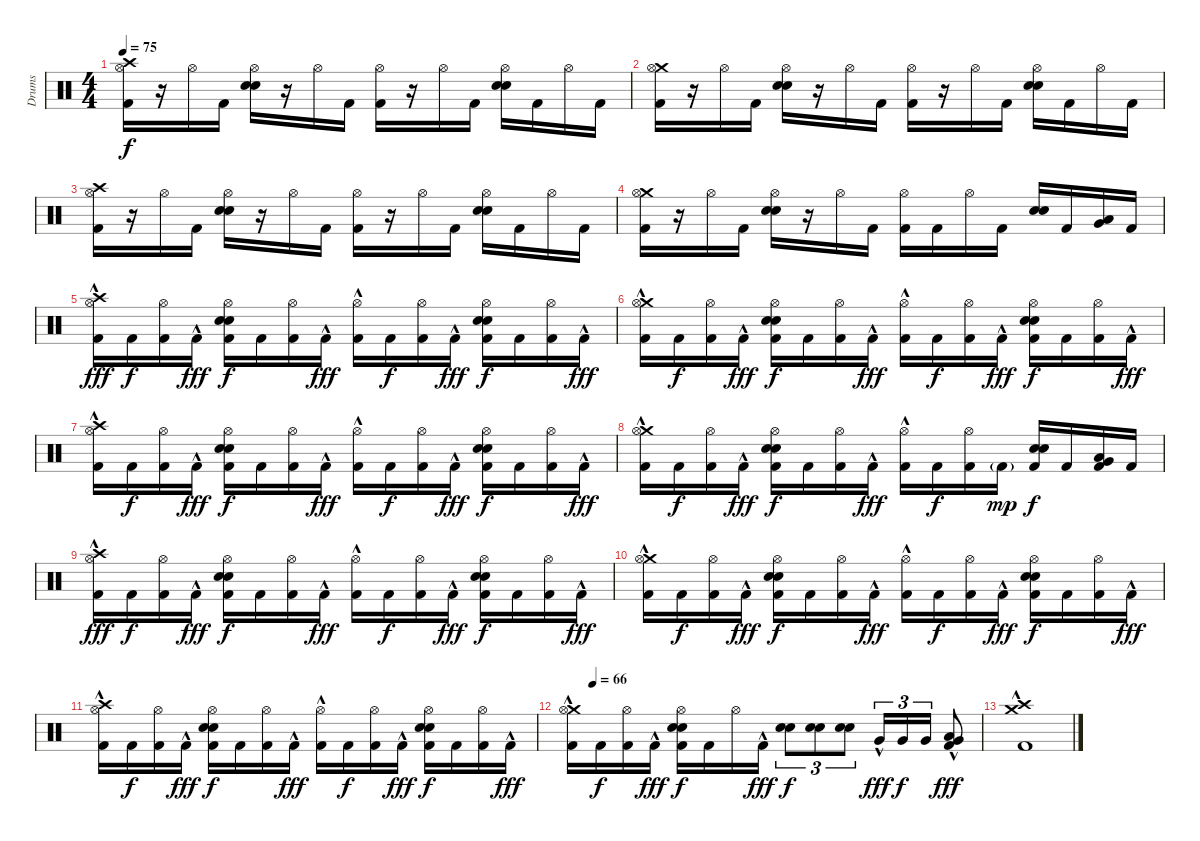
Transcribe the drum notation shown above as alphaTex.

\track ("Drums" "Drums") {instrument percussion}
\staff {score}
\articulation defaults
\ts (4 4)
\tempo 75
\clef neutral
\ks c
("Crash high (hit)" "Hi-Hat (open)" "Kick (hit) 2").16{dy f volume 13} r.16 "Hi-Hat (open)".16 "Kick (hit) 2".16 ("Hi-Hat (open)" "Electric Snare (hit)" "Snare (hit) 2").16 r.16 "Hi-Hat (open)".16 "Kick (hit) 2".16 ("Hi-Hat (open)" "Kick (hit) 2").16 r.16 "Hi-Hat (open)".16 "Kick (hit) 2".16 ("Hi-Hat (open)" "Electric Snare (hit)" "Snare (hit) 2").16 "Kick (hit) 2".16 "Hi-Hat (open)".16 "Kick (hit) 2".16 |
("Crash medium (hit)" "Hi-Hat (open)" "Kick (hit) 2").16 r.16 "Hi-Hat (open)".16 "Kick (hit) 2".16 ("Hi-Hat (open)" "Electric Snare (hit)" "Snare (hit) 2").16 r.16 "Hi-Hat (open)".16 "Kick (hit) 2".16 ("Hi-Hat (open)" "Kick (hit) 2").16 r.16 "Hi-Hat (open)".16 "Kick (hit) 2".16 ("Hi-Hat (open)" "Electric Snare (hit)" "Snare (hit) 2").16 "Kick (hit) 2".16 "Hi-Hat (open)".16 "Kick (hit) 2".16 |
("Crash high (hit)" "Hi-Hat (open)" "Kick (hit) 2").16 r.16 "Hi-Hat (open)".16 "Kick (hit) 2".16 ("Hi-Hat (open)" "Electric Snare (hit)" "Snare (hit) 2").16 r.16 "Hi-Hat (open)".16 "Kick (hit) 2".16 ("Hi-Hat (open)" "Kick (hit) 2").16 r.16 "Hi-Hat (open)".16 "Kick (hit) 2".16 ("Hi-Hat (open)" "Electric Snare (hit)" "Snare (hit) 2").16 "Kick (hit) 2".16 "Hi-Hat (open)".16 "Kick (hit) 2".16 |
("Crash medium (hit)" "Hi-Hat (open)" "Kick (hit) 2").16 r.16 "Hi-Hat (open)".16 "Kick (hit) 2".16 ("Hi-Hat (open)" "Electric Snare (hit)" "Snare (hit) 2").16 r.16 "Hi-Hat (open)".16 "Kick (hit) 2".16 ("Hi-Hat (open)" "Kick (hit) 2").16 "Kick (hit) 2".16 "Hi-Hat (open)".16 "Kick (hit) 2".16 ("Electric Snare (hit)" "Snare (hit) 2").16 "Kick (hit) 2".16 ("Very Low Tom (hit)" "Low Floor Tom (hit)").16 "Kick (hit) 2".16 |
("Crash high (hit)" "Hi-Hat (open)" "Kick (hit) 2"{hac}).16{dy fff} "Kick (hit) 2".16{dy f} ("Hi-Hat (open)" "Kick (hit) 2").16{volume 15} "Kick (hit) 2"{hac}.16{dy fff} ("Hi-Hat (open)" "Electric Snare (hit)" "Snare (hit) 2" "Kick (hit) 2").16{dy f} "Kick (hit) 2".16 ("Hi-Hat (open)" "Kick (hit) 2").16 "Kick (hit) 2"{hac}.16{dy fff} ("Hi-Hat (open)" "Kick (hit) 2"{hac}).16 "Kick (hit) 2".16{dy f} ("Hi-Hat (open)" "Kick (hit) 2").16 "Kick (hit) 2"{hac}.16{dy fff} ("Hi-Hat (open)" "Electric Snare (hit)" "Snare (hit) 2" "Kick (hit) 2").16{dy f} "Kick (hit) 2".16 ("Hi-Hat (open)" "Kick (hit) 2").16 "Kick (hit) 2"{hac}.16{dy fff} |
("Crash medium (hit)" "Hi-Hat (open)" "Kick (hit) 2"{hac}).16 "Kick (hit) 2".16{dy f} ("Hi-Hat (open)" "Kick (hit) 2").16 "Kick (hit) 2"{hac}.16{dy fff} ("Hi-Hat (open)" "Electric Snare (hit)" "Snare (hit) 2" "Kick (hit) 2").16{dy f} "Kick (hit) 2".16 ("Hi-Hat (open)" "Kick (hit) 2").16 "Kick (hit) 2"{hac}.16{dy fff} ("Hi-Hat (open)" "Kick (hit) 2"{hac}).16 "Kick (hit) 2".16{dy f} ("Hi-Hat (open)" "Kick (hit) 2").16 "Kick (hit) 2"{hac}.16{dy fff} ("Hi-Hat (open)" "Electric Snare (hit)" "Snare (hit) 2" "Kick (hit) 2").16{dy f} "Kick (hit) 2".16 ("Hi-Hat (open)" "Kick (hit) 2").16 "Kick (hit) 2"{hac}.16{dy fff} |
("Crash high (hit)" "Hi-Hat (open)" "Kick (hit) 2"{hac}).16 "Kick (hit) 2".16{dy f} ("Hi-Hat (open)" "Kick (hit) 2").16 "Kick (hit) 2"{hac}.16{dy fff} ("Hi-Hat (open)" "Electric Snare (hit)" "Snare (hit) 2" "Kick (hit) 2").16{dy f} "Kick (hit) 2".16 ("Hi-Hat (open)" "Kick (hit) 2").16 "Kick (hit) 2"{hac}.16{dy fff} ("Hi-Hat (open)" "Kick (hit) 2"{hac}).16 "Kick (hit) 2".16{dy f} ("Hi-Hat (open)" "Kick (hit) 2").16 "Kick (hit) 2"{hac}.16{dy fff} ("Hi-Hat (open)" "Electric Snare (hit)" "Snare (hit) 2" "Kick (hit) 2").16{dy f} "Kick (hit) 2".16 ("Hi-Hat (open)" "Kick (hit) 2").16 "Kick (hit) 2"{hac}.16{dy fff} |
("Crash medium (hit)" "Hi-Hat (open)" "Kick (hit) 2"{hac}).16 "Kick (hit) 2".16{dy f} ("Hi-Hat (open)" "Kick (hit) 2").16 "Kick (hit) 2"{hac}.16{dy fff} ("Hi-Hat (open)" "Electric Snare (hit)" "Snare (hit) 2" "Kick (hit) 2").16{dy f} "Kick (hit) 2".16 ("Hi-Hat (open)" "Kick (hit) 2").16 "Kick (hit) 2"{hac}.16{dy fff} ("Hi-Hat (open)" "Kick (hit) 2"{hac}).16 "Kick (hit) 2".16{dy f} ("Hi-Hat (open)" "Kick (hit) 2").16 "Kick (hit) 2"{g}.16{dy mp} ("Electric Snare (hit)" "Snare (hit) 2" "Kick (hit) 2").16{dy f} "Kick (hit) 2".16 ("Very Low Tom (hit)" "Low Floor Tom (hit)" "Kick (hit) 2").16 "Kick (hit) 2".16 |
("Crash high (hit)" "Hi-Hat (open)" "Kick (hit) 2"{hac}).16{dy fff} "Kick (hit) 2".16{dy f} ("Hi-Hat (open)" "Kick (hit) 2").16 "Kick (hit) 2"{hac}.16{dy fff} ("Hi-Hat (open)" "Electric Snare (hit)" "Snare (hit) 2" "Kick (hit) 2").16{dy f} "Kick (hit) 2".16 ("Hi-Hat (open)" "Kick (hit) 2").16 "Kick (hit) 2"{hac}.16{dy fff} ("Hi-Hat (open)" "Kick (hit) 2"{hac}).16 "Kick (hit) 2".16{dy f} ("Hi-Hat (open)" "Kick (hit) 2").16 "Kick (hit) 2"{hac}.16{dy fff} ("Hi-Hat (open)" "Electric Snare (hit)" "Snare (hit) 2" "Kick (hit) 2").16{dy f} "Kick (hit) 2".16 ("Hi-Hat (open)" "Kick (hit) 2").16 "Kick (hit) 2"{hac}.16{dy fff} |
("Crash medium (hit)" "Hi-Hat (open)" "Kick (hit) 2"{hac}).16 "Kick (hit) 2".16{dy f} ("Hi-Hat (open)" "Kick (hit) 2").16 "Kick (hit) 2"{hac}.16{dy fff} ("Hi-Hat (open)" "Electric Snare (hit)" "Snare (hit) 2" "Kick (hit) 2").16{dy f} "Kick (hit) 2".16 ("Hi-Hat (open)" "Kick (hit) 2").16 "Kick (hit) 2"{hac}.16{dy fff} ("Hi-Hat (open)" "Kick (hit) 2"{hac}).16 "Kick (hit) 2".16{dy f} ("Hi-Hat (open)" "Kick (hit) 2").16 "Kick (hit) 2"{hac}.16{dy fff} ("Hi-Hat (open)" "Electric Snare (hit)" "Snare (hit) 2" "Kick (hit) 2").16{dy f} "Kick (hit) 2".16 ("Hi-Hat (open)" "Kick (hit) 2").16 "Kick (hit) 2"{hac}.16{dy fff} |
("Crash high (hit)" "Hi-Hat (open)" "Kick (hit) 2"{hac}).16 "Kick (hit) 2".16{dy f} ("Hi-Hat (open)" "Kick (hit) 2").16 "Kick (hit) 2"{hac}.16{dy fff} ("Hi-Hat (open)" "Electric Snare (hit)" "Snare (hit) 2" "Kick (hit) 2").16{dy f} "Kick (hit) 2".16 ("Hi-Hat (open)" "Kick (hit) 2").16 "Kick (hit) 2"{hac}.16{dy fff} ("Hi-Hat (open)" "Kick (hit) 2"{hac}).16 "Kick (hit) 2".16{dy f} ("Hi-Hat (open)" "Kick (hit) 2").16 "Kick (hit) 2"{hac}.16{dy fff} ("Hi-Hat (open)" "Electric Snare (hit)" "Snare (hit) 2" "Kick (hit) 2").16{dy f} "Kick (hit) 2".16 ("Hi-Hat (open)" "Kick (hit) 2").16 "Kick (hit) 2"{hac}.16{dy fff} |
\tempo (66 0.0625)
("Crash medium (hit)" "Hi-Hat (open)" "Kick (hit) 2"{hac}).16 "Kick (hit) 2".16{dy f} ("Hi-Hat (open)" "Kick (hit) 2").16 "Kick (hit) 2"{hac}.16{dy fff} ("Hi-Hat (open)" "Electric Snare (hit)" "Snare (hit) 2" "Kick (hit) 2").16{dy f} "Kick (hit) 2".16 "Hi-Hat (open)".16 "Kick (hit) 2"{hac}.16{dy fff} ("Electric Snare (hit)" "Snare (hit) 2").8{tu (3 2) dy f} ("Electric Snare (hit)" "Snare (hit) 2").8{tu (3 2)} ("Electric Snare (hit)" "Snare (hit) 2").8{tu (3 2)} "Very Low Tom (hit)"{hac}.16{tu (3 2) dy fff} "Very Low Tom (hit)".16{tu (3 2) dy f} "Very Low Tom (hit)".16{tu (3 2)} ("Low Floor Tom (hit)"{hac} "Very Low Tom (hit)" "Kick (hit) 2"{hac}).8{dy fff} |
("Crash medium (hit)"{hac} "Crash high (hit)" "Kick (hit) 2").1
